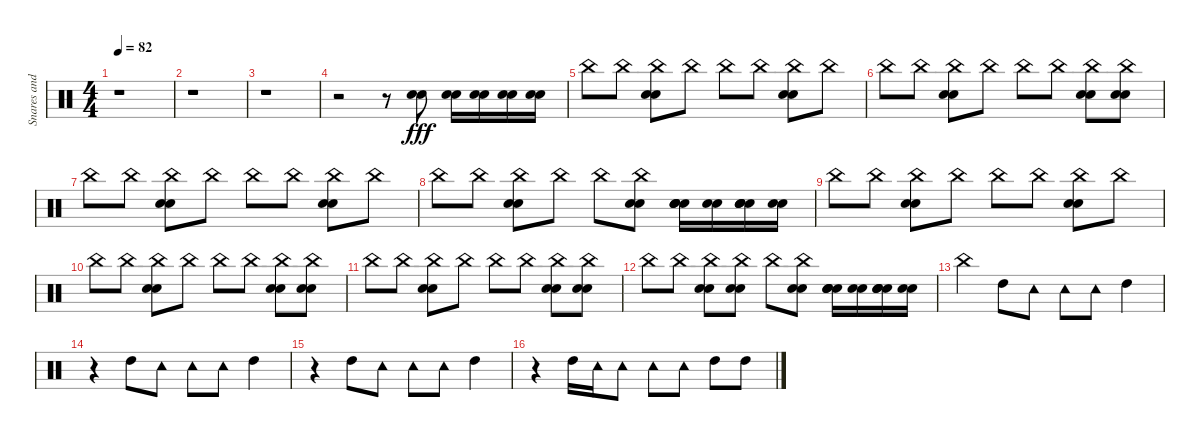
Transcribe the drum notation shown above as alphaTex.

\track ("Snares and Cymbals" "Snares and") {instrument percussion}
\staff {score}
\articulation defaults
\ts (4 4)
\tempo 82
\clef neutral
\ks c
r.1{dy fff} |
r.1 |
r.1 |
r.2 r.8 ("Electric Snare (hit)" "Snare (hit) 2").8 ("Electric Snare (hit)" "Snare (hit) 2").16 ("Electric Snare (hit)" "Snare (hit) 2").16 ("Electric Snare (hit)" "Snare (hit) 2").16 ("Electric Snare (hit)" "Snare (hit) 2").16 |
"China (hit)".8 "China (hit)".8 ("Snare (hit) 2" "Electric Snare (hit)" "China (hit)").8 "China (hit)".8 "China (hit)".8 "China (hit)".8 ("Snare (hit) 2" "Electric Snare (hit)" "China (hit)").8 "China (hit)".8 |
"China (hit)".8 "China (hit)".8 ("China (hit)" "Snare (hit) 2" "Electric Snare (hit)").8 "China (hit)".8 "China (hit)".8 "China (hit)".8 ("China (hit)" "Snare (hit) 2" "Electric Snare (hit)").8 ("Snare (hit) 2" "Electric Snare (hit)" "China (hit)").8 |
"China (hit)".8 "China (hit)".8 ("China (hit)" "Snare (hit) 2" "Electric Snare (hit)").8 "China (hit)".8 "China (hit)".8 "China (hit)".8 ("China (hit)" "Snare (hit) 2" "Electric Snare (hit)").8 "China (hit)".8 |
"China (hit)".8 "China (hit)".8 ("China (hit)" "Snare (hit) 2" "Electric Snare (hit)").8 "China (hit)".8 "China (hit)".8 ("Snare (hit) 2" "Electric Snare (hit)" "China (hit)").8 ("Snare (hit) 2" "Electric Snare (hit)" "Electric Snare (hit)" "Snare (hit) 2").16 ("Electric Snare (hit)" "Snare (hit) 2").16 ("Snare (hit) 2" "Electric Snare (hit)" "Electric Snare (hit)" "Snare (hit) 2").16 ("Electric Snare (hit)" "Snare (hit) 2").16 |
"China (hit)".8 "China (hit)".8 ("China (hit)" "Snare (hit) 2" "Electric Snare (hit)").8 "China (hit)".8 "China (hit)".8 "China (hit)".8 ("China (hit)" "Snare (hit) 2" "Electric Snare (hit)").8 "China (hit)".8 |
"China (hit)".8 "China (hit)".8 ("China (hit)" "Snare (hit) 2" "Electric Snare (hit)").8 "China (hit)".8 "China (hit)".8 "China (hit)".8 ("China (hit)" "Snare (hit) 2" "Electric Snare (hit)").8 ("Snare (hit) 2" "Electric Snare (hit)" "China (hit)").8 |
"China (hit)".8 "China (hit)".8 ("China (hit)" "Snare (hit) 2" "Electric Snare (hit)").8 "China (hit)".8 "China (hit)".8 "China (hit)".8 ("China (hit)" "Snare (hit) 2" "Electric Snare (hit)").8 ("Snare (hit) 2" "Electric Snare (hit)" "China (hit)").8 |
"China (hit)".8 "China (hit)".8 ("China (hit)" "Snare (hit) 2" "Electric Snare (hit)").8 ("Snare (hit) 2" "Electric Snare (hit)" "China (hit)").8 "China (hit)".8 ("Snare (hit) 2" "Electric Snare (hit)" "China (hit)").8 ("Snare (hit) 2" "Electric Snare (hit)" "Electric Snare (hit)" "Snare (hit) 2").16 ("Electric Snare (hit)" "Snare (hit) 2").16 ("Snare (hit) 2" "Electric Snare (hit)" "Electric Snare (hit)" "Snare (hit) 2").16 ("Electric Snare (hit)" "Snare (hit) 2").16 |
"China (hit)".4 "High Tom (hit)".8 "Tambourine (hit)".8 "Tambourine (hit)".8 "Tambourine (hit)".8 "High Tom (hit)".4 |
r.4 "High Tom (hit)".8 "Tambourine (hit)".8 "Tambourine (hit)".8 "Tambourine (hit)".8 "High Tom (hit)".4 |
r.4 "High Tom (hit)".8 "Tambourine (hit)".8 "Tambourine (hit)".8 "Tambourine (hit)".8 "High Tom (hit)".4 |
r.4 "High Tom (hit)".16 "Tambourine (hit)".16 "Tambourine (hit)".8 "Tambourine (hit)".8 "Tambourine (hit)".8 "High Tom (hit)".8 "High Tom (hit)".8
